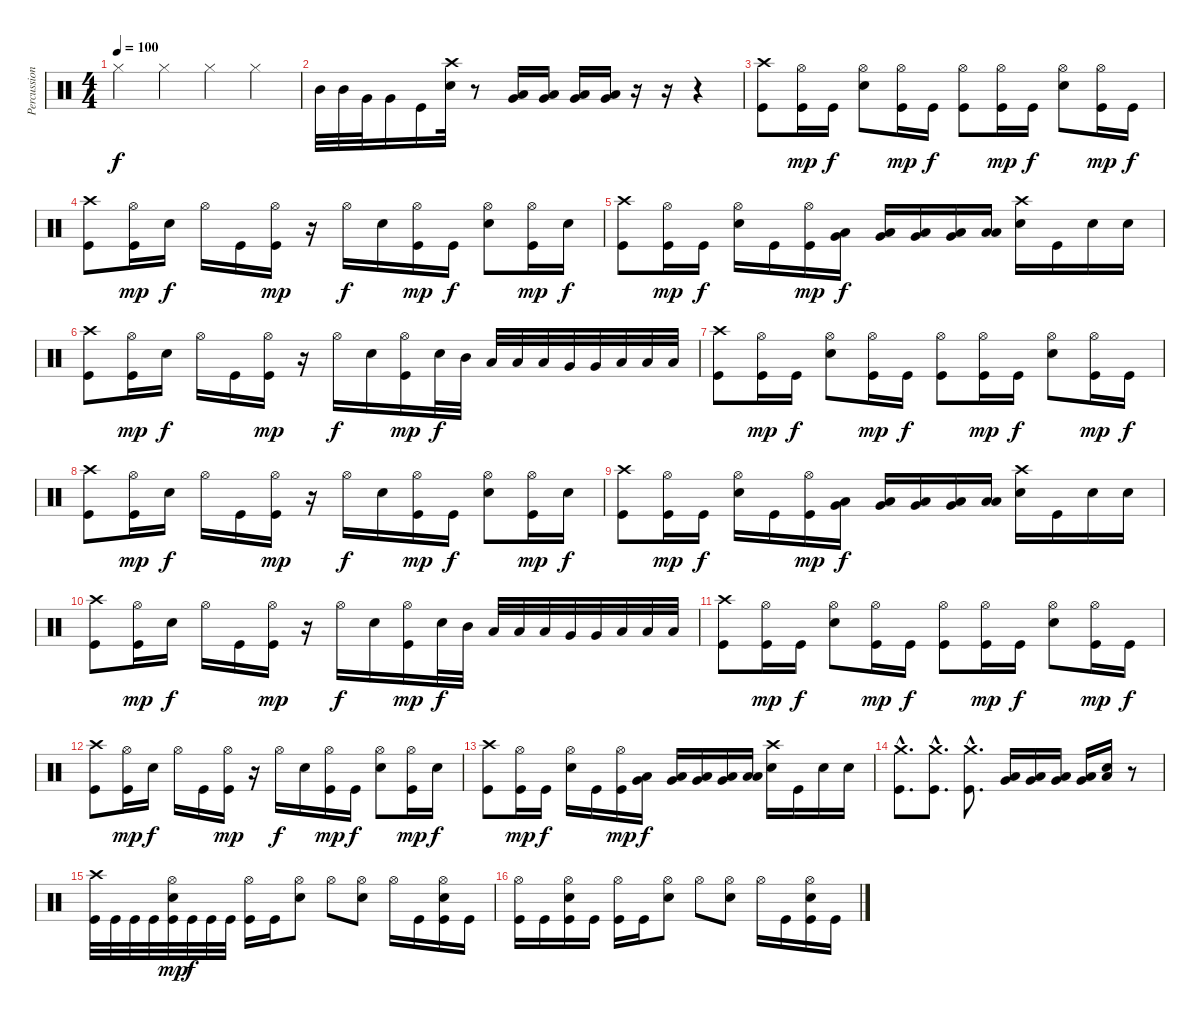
\track ("Percussion" "Percussion") {instrument percussion}
\staff {score}
\articulation defaults
\ts (4 4)
\tempo 100
\clef neutral
\ks c "Hi-Hat (closed)".4{dy f} "Hi-Hat (closed)".4 "Hi-Hat (closed)".4 "Hi-Hat (closed)".4
|
"Mid Tom (hit)".32 "Mid Tom (hit)".32 "Very Low Tom (hit)".32 "Very Low Tom (hit)".16 "Kick (hit)".16 ("Crash high (hit)" "Electric Snare (hit)").32 r.8 ("Very Low Tom (hit)" "Low Floor Tom (hit)").16 ("Very Low Tom (hit)" "Low Floor Tom (hit)").16 ("Very Low Tom (hit)" "Low Floor Tom (hit)").16 ("Very Low Tom (hit)" "Low Floor Tom (hit)").16 r.16 r.16 r.4 |
("Crash high (hit)" "Kick (hit)").8 ("Hi-Hat (open)" "Kick (hit)").16{dy mp} "Kick (hit)".16{dy f} ("Hi-Hat (open)" "Electric Snare (hit)").8 ("Hi-Hat (open)" "Kick (hit)").16{dy mp} "Kick (hit)".16{dy f} ("Hi-Hat (open)" "Kick (hit)").8 ("Hi-Hat (open)" "Kick (hit)").16{dy mp} "Kick (hit)".16{dy f} ("Hi-Hat (open)" "Electric Snare (hit)").8 ("Hi-Hat (open)" "Kick (hit)").16{dy mp} "Kick (hit)".16{dy f} |
("Crash high (hit)" "Kick (hit)").8 ("Hi-Hat (open)" "Kick (hit)").16{dy mp} "Electric Snare (hit)".16{dy f} "Hi-Hat (open)".16 "Kick (hit)".16 ("Hi-Hat (open)" "Kick (hit)").16{dy mp} r.16 "Hi-Hat (open)".16{dy f} "Electric Snare (hit)".16 ("Hi-Hat (open)" "Kick (hit)").16{dy mp} "Kick (hit)".16{dy f} ("Hi-Hat (open)" "Electric Snare (hit)").8 ("Hi-Hat (open)" "Kick (hit)").16{dy mp} "Electric Snare (hit)".16{dy f} |
("Crash high (hit)" "Kick (hit)").8 ("Hi-Hat (open)" "Kick (hit)").16{dy mp} "Kick (hit)".16{dy f} ("Hi-Hat (open)" "Electric Snare (hit)").16 "Kick (hit)".16 ("Hi-Hat (open)" "Kick (hit)").16{dy mp} ("Low Tom (hit)" "Very Low Tom (hit)").16{dy f} ("Low Tom (hit)" "Very Low Tom (hit)").16 ("Very Low Tom (hit)" "Low Floor Tom (hit)").16 ("Very Low Tom (hit)" "Low Floor Tom (hit)").16 ("Low Floor Tom (hit)" "Low Floor Tom (hit)").16 ("Crash high (hit)" "Electric Snare (hit)").16 "Kick (hit)".16 "Electric Snare (hit)".16 "Electric Snare (hit)".16 |
("Crash high (hit)" "Kick (hit)").8 ("Hi-Hat (open)" "Kick (hit)").16{dy mp} "Electric Snare (hit)".16{dy f} "Hi-Hat (open)".16 "Kick (hit)".16 ("Hi-Hat (open)" "Kick (hit)").16{dy mp} r.16 "Hi-Hat (open)".16{dy f} "Electric Snare (hit)".16 ("Hi-Hat (open)" "Kick (hit)").16{dy mp} "Electric Snare (hit)".32{dy f} "Mid Tom (hit)".32 "Low Tom (hit)".32 "Low Tom (hit)".32 "Low Tom (hit)".32 "Very Low Tom (hit)".32 "Very Low Tom (hit)".32 "Low Floor Tom (hit)".32 "Low Floor Tom (hit)".32 "Low Floor Tom (hit)".32 |
("Crash high (hit)" "Kick (hit)").8 ("Hi-Hat (open)" "Kick (hit)").16{dy mp} "Kick (hit)".16{dy f} ("Hi-Hat (open)" "Electric Snare (hit)").8 ("Hi-Hat (open)" "Kick (hit)").16{dy mp} "Kick (hit)".16{dy f} ("Hi-Hat (open)" "Kick (hit)").8 ("Hi-Hat (open)" "Kick (hit)").16{dy mp} "Kick (hit)".16{dy f} ("Hi-Hat (open)" "Electric Snare (hit)").8 ("Hi-Hat (open)" "Kick (hit)").16{dy mp} "Kick (hit)".16{dy f} |
("Crash high (hit)" "Kick (hit)").8 ("Hi-Hat (open)" "Kick (hit)").16{dy mp} "Electric Snare (hit)".16{dy f} "Hi-Hat (open)".16 "Kick (hit)".16 ("Hi-Hat (open)" "Kick (hit)").16{dy mp} r.16 "Hi-Hat (open)".16{dy f} "Electric Snare (hit)".16 ("Hi-Hat (open)" "Kick (hit)").16{dy mp} "Kick (hit)".16{dy f} ("Hi-Hat (open)" "Electric Snare (hit)").8 ("Hi-Hat (open)" "Kick (hit)").16{dy mp} "Electric Snare (hit)".16{dy f} |
("Crash high (hit)" "Kick (hit)").8 ("Hi-Hat (open)" "Kick (hit)").16{dy mp} "Kick (hit)".16{dy f} ("Hi-Hat (open)" "Electric Snare (hit)").16 "Kick (hit)".16 ("Hi-Hat (open)" "Kick (hit)").16{dy mp} ("Low Tom (hit)" "Very Low Tom (hit)").16{dy f} ("Low Tom (hit)" "Very Low Tom (hit)").16 ("Very Low Tom (hit)" "Low Floor Tom (hit)").16 ("Very Low Tom (hit)" "Low Floor Tom (hit)").16 ("Low Floor Tom (hit)" "Low Floor Tom (hit)").16 ("Crash high (hit)" "Electric Snare (hit)").16 "Kick (hit)".16 "Electric Snare (hit)".16 "Electric Snare (hit)".16 |
("Crash high (hit)" "Kick (hit)").8 ("Hi-Hat (open)" "Kick (hit)").16{dy mp} "Electric Snare (hit)".16{dy f} "Hi-Hat (open)".16 "Kick (hit)".16 ("Hi-Hat (open)" "Kick (hit)").16{dy mp} r.16 "Hi-Hat (open)".16{dy f} "Electric Snare (hit)".16 ("Hi-Hat (open)" "Kick (hit)").16{dy mp} "Electric Snare (hit)".32{dy f} "Mid Tom (hit)".32 "Low Tom (hit)".32 "Low Tom (hit)".32 "Low Tom (hit)".32 "Very Low Tom (hit)".32 "Very Low Tom (hit)".32 "Low Floor Tom (hit)".32 "Low Floor Tom (hit)".32 "Low Floor Tom (hit)".32 |
("Crash high (hit)" "Kick (hit)").8 ("Hi-Hat (open)" "Kick (hit)").16{dy mp} "Kick (hit)".16{dy f} ("Hi-Hat (open)" "Electric Snare (hit)").8 ("Hi-Hat (open)" "Kick (hit)").16{dy mp} "Kick (hit)".16{dy f} ("Hi-Hat (open)" "Kick (hit)").8 ("Hi-Hat (open)" "Kick (hit)").16{dy mp} "Kick (hit)".16{dy f} ("Hi-Hat (open)" "Electric Snare (hit)").8 ("Hi-Hat (open)" "Kick (hit)").16{dy mp} "Kick (hit)".16{dy f} |
("Crash high (hit)" "Kick (hit)").8 ("Hi-Hat (open)" "Kick (hit)").16{dy mp} "Electric Snare (hit)".16{dy f} "Hi-Hat (open)".16 "Kick (hit)".16 ("Hi-Hat (open)" "Kick (hit)").16{dy mp} r.16 "Hi-Hat (open)".16{dy f} "Electric Snare (hit)".16 ("Hi-Hat (open)" "Kick (hit)").16{dy mp} "Kick (hit)".16{dy f} ("Hi-Hat (open)" "Electric Snare (hit)").8 ("Hi-Hat (open)" "Kick (hit)").16{dy mp} "Electric Snare (hit)".16{dy f} |
("Crash high (hit)" "Kick (hit)").8 ("Hi-Hat (open)" "Kick (hit)").16{dy mp} "Kick (hit)".16{dy f} ("Hi-Hat (open)" "Electric Snare (hit)").16 "Kick (hit)".16 ("Hi-Hat (open)" "Kick (hit)").16{dy mp} ("Low Tom (hit)" "Very Low Tom (hit)").16{dy f} ("Low Tom (hit)" "Very Low Tom (hit)").16 ("Very Low Tom (hit)" "Low Floor Tom (hit)").16 ("Very Low Tom (hit)" "Low Floor Tom (hit)").16 ("Low Floor Tom (hit)" "Low Floor Tom (hit)").16 ("Crash high (hit)" "Electric Snare (hit)").16 "Kick (hit)".16 "Electric Snare (hit)".16 "Electric Snare (hit)".16 |
("Crash medium (hit)"{hac} "Kick (hit)"{hac}).8{d} ("Crash medium (hit)"{hac} "Kick (hit)"{hac}).8{d} ("Crash medium (hit)"{hac} "Kick (hit)"{hac}).8{d} ("Very Low Tom (hit)" "Low Floor Tom (hit)").16 ("Very Low Tom (hit)" "Low Floor Tom (hit)").16 ("Very Low Tom (hit)" "Low Floor Tom (hit)").16 ("Very Low Tom (hit)" "Low Floor Tom (hit)").16 ("Electric Snare (hit)" "Low Floor Tom (hit)").16 r.8 |
("Crash high (hit)" "Kick (hit)").32 "Kick (hit)".32 "Kick (hit)".32 "Kick (hit)".32 ("Hi-Hat (open)" "Electric Snare (hit)" "Kick (hit)").32{dy mp} "Kick (hit)".32{dy f} "Kick (hit)".32 "Kick (hit)".32 ("Hi-Hat (open)" "Kick (hit)").16 "Kick (hit)".16 ("Hi-Hat (open)" "Electric Snare (hit)").8 "Hi-Hat (open)".8 ("Hi-Hat (open)" "Electric Snare (hit)").8 "Hi-Hat (open)".16 "Kick (hit)".16 ("Hi-Hat (open)" "Electric Snare (hit)" "Kick (hit)").16 "Kick (hit)".16 |
("Hi-Hat (open)" "Kick (hit)").16 "Kick (hit)".16 ("Hi-Hat (open)" "Electric Snare (hit)" "Kick (hit)").16 "Kick (hit)".16 ("Hi-Hat (open)" "Kick (hit)").16 "Kick (hit)".16 ("Hi-Hat (open)" "Electric Snare (hit)").8 "Hi-Hat (open)".8 ("Hi-Hat (open)" "Electric Snare (hit)").8 "Hi-Hat (open)".16 "Kick (hit)".16 ("Hi-Hat (open)" "Electric Snare (hit)" "Kick (hit)").16 "Kick (hit)".16
